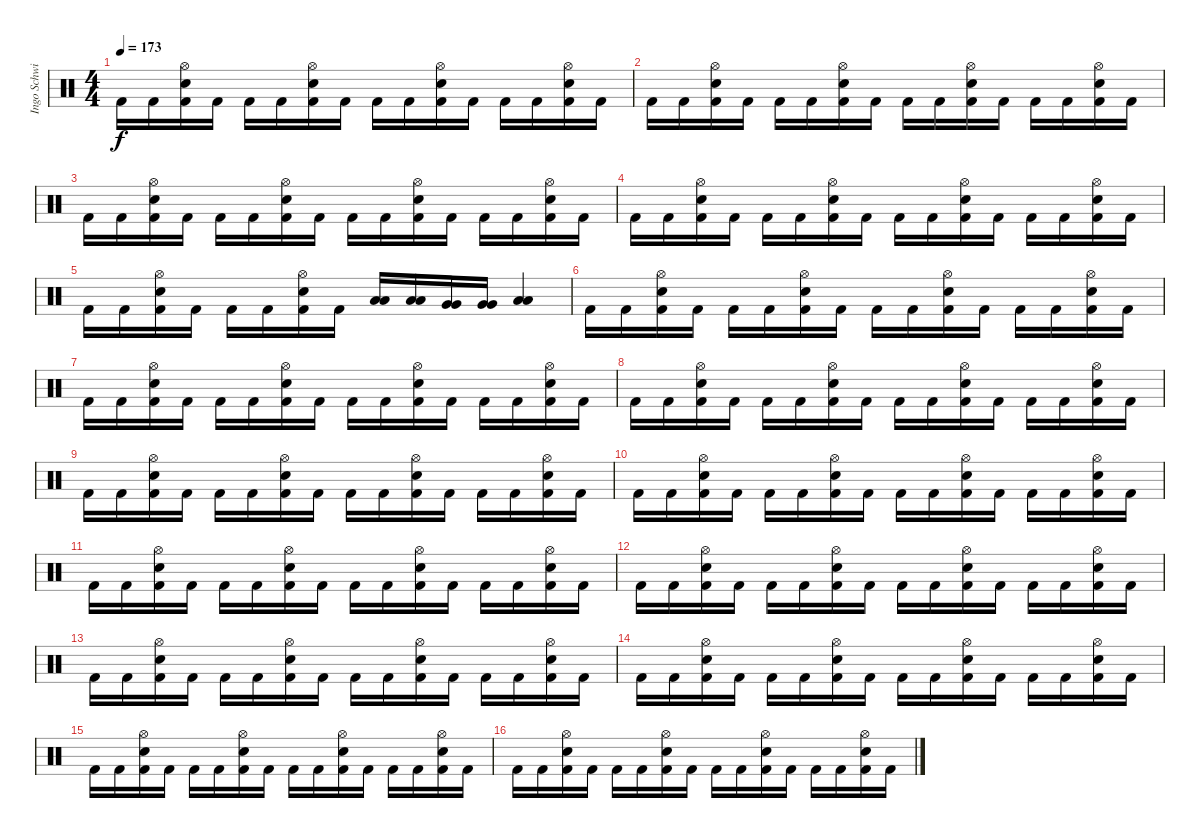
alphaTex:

\track ("Ingo Schwichtenberg" "Ingo Schwi") {instrument percussion}
\staff {score}
\articulation defaults
\ts (4 4)
\tempo 173
\clef neutral
\ks c "Kick (hit) 2".16{dy f} "Kick (hit) 2".16
("Kick (hit) 2" "Snare (hit) 2" "Hi-Hat (open)").16 "Kick (hit) 2".16 "Kick (hit) 2".16 "Kick (hit) 2".16 ("Kick (hit) 2" "Snare (hit) 2" "Hi-Hat (open)").16 "Kick (hit) 2".16 "Kick (hit) 2".16 "Kick (hit) 2".16 ("Kick (hit) 2" "Snare (hit) 2" "Hi-Hat (open)").16 "Kick (hit) 2".16 "Kick (hit) 2".16 "Kick (hit) 2".16 ("Kick (hit) 2" "Snare (hit) 2" "Hi-Hat (open)").16 "Kick (hit) 2".16 |
"Kick (hit) 2".16 "Kick (hit) 2".16 ("Kick (hit) 2" "Snare (hit) 2" "Hi-Hat (open)").16 "Kick (hit) 2".16 "Kick (hit) 2".16 "Kick (hit) 2".16 ("Kick (hit) 2" "Snare (hit) 2" "Hi-Hat (open)").16 "Kick (hit) 2".16 "Kick (hit) 2".16 "Kick (hit) 2".16 ("Kick (hit) 2" "Snare (hit) 2" "Hi-Hat (open)").16 "Kick (hit) 2".16 "Kick (hit) 2".16 "Kick (hit) 2".16 ("Kick (hit) 2" "Snare (hit) 2" "Hi-Hat (open)").16 "Kick (hit) 2".16 |
"Kick (hit) 2".16 "Kick (hit) 2".16 ("Kick (hit) 2" "Snare (hit) 2" "Hi-Hat (open)").16 "Kick (hit) 2".16 "Kick (hit) 2".16 "Kick (hit) 2".16 ("Kick (hit) 2" "Snare (hit) 2" "Hi-Hat (open)").16 "Kick (hit) 2".16 "Kick (hit) 2".16 "Kick (hit) 2".16 ("Kick (hit) 2" "Snare (hit) 2" "Hi-Hat (open)").16 "Kick (hit) 2".16 "Kick (hit) 2".16 "Kick (hit) 2".16 ("Kick (hit) 2" "Snare (hit) 2" "Hi-Hat (open)").16 "Kick (hit) 2".16 |
"Kick (hit) 2".16 "Kick (hit) 2".16 ("Kick (hit) 2" "Snare (hit) 2" "Hi-Hat (open)").16 "Kick (hit) 2".16 "Kick (hit) 2".16 "Kick (hit) 2".16 ("Kick (hit) 2" "Snare (hit) 2" "Hi-Hat (open)").16 "Kick (hit) 2".16 "Kick (hit) 2".16 "Kick (hit) 2".16 ("Kick (hit) 2" "Snare (hit) 2" "Hi-Hat (open)").16 "Kick (hit) 2".16 "Kick (hit) 2".16 "Kick (hit) 2".16 ("Kick (hit) 2" "Snare (hit) 2" "Hi-Hat (open)").16 "Kick (hit) 2".16 |
"Kick (hit) 2".16 "Kick (hit) 2".16 ("Kick (hit) 2" "Snare (hit) 2" "Hi-Hat (open)").16 "Kick (hit) 2".16 "Kick (hit) 2".16 "Kick (hit) 2".16 ("Kick (hit) 2" "Snare (hit) 2" "Hi-Hat (open)").16 "Kick (hit) 2".16 ("Low Tom (hit)" "Low Tom (hit)").16 ("Low Tom (hit)" "Low Tom (hit)").16 ("Very Low Tom (hit)" "Very Low Tom (hit)").16 ("Very Low Tom (hit)" "Very Low Tom (hit)").16 ("Low Floor Tom (hit)" "Low Floor Tom (hit)").4 |
"Kick (hit) 2".16 "Kick (hit) 2".16 ("Kick (hit) 2" "Snare (hit) 2" "Hi-Hat (open)").16 "Kick (hit) 2".16 "Kick (hit) 2".16 "Kick (hit) 2".16 ("Kick (hit) 2" "Snare (hit) 2" "Hi-Hat (open)").16 "Kick (hit) 2".16 "Kick (hit) 2".16 "Kick (hit) 2".16 ("Kick (hit) 2" "Snare (hit) 2" "Hi-Hat (open)").16 "Kick (hit) 2".16 "Kick (hit) 2".16 "Kick (hit) 2".16 ("Kick (hit) 2" "Snare (hit) 2" "Hi-Hat (open)").16 "Kick (hit) 2".16 |
"Kick (hit) 2".16 "Kick (hit) 2".16 ("Kick (hit) 2" "Snare (hit) 2" "Hi-Hat (open)").16 "Kick (hit) 2".16 "Kick (hit) 2".16 "Kick (hit) 2".16 ("Kick (hit) 2" "Snare (hit) 2" "Hi-Hat (open)").16 "Kick (hit) 2".16 "Kick (hit) 2".16 "Kick (hit) 2".16 ("Kick (hit) 2" "Snare (hit) 2" "Hi-Hat (open)").16 "Kick (hit) 2".16 "Kick (hit) 2".16 "Kick (hit) 2".16 ("Kick (hit) 2" "Snare (hit) 2" "Hi-Hat (open)").16 "Kick (hit) 2".16 |
"Kick (hit) 2".16 "Kick (hit) 2".16 ("Kick (hit) 2" "Snare (hit) 2" "Hi-Hat (open)").16 "Kick (hit) 2".16 "Kick (hit) 2".16 "Kick (hit) 2".16 ("Kick (hit) 2" "Snare (hit) 2" "Hi-Hat (open)").16 "Kick (hit) 2".16 "Kick (hit) 2".16 "Kick (hit) 2".16 ("Kick (hit) 2" "Snare (hit) 2" "Hi-Hat (open)").16 "Kick (hit) 2".16 "Kick (hit) 2".16 "Kick (hit) 2".16 ("Kick (hit) 2" "Snare (hit) 2" "Hi-Hat (open)").16 "Kick (hit) 2".16 |
"Kick (hit) 2".16 "Kick (hit) 2".16 ("Kick (hit) 2" "Snare (hit) 2" "Hi-Hat (open)").16 "Kick (hit) 2".16 "Kick (hit) 2".16 "Kick (hit) 2".16 ("Kick (hit) 2" "Snare (hit) 2" "Hi-Hat (open)").16 "Kick (hit) 2".16 "Kick (hit) 2".16 "Kick (hit) 2".16 ("Kick (hit) 2" "Snare (hit) 2" "Hi-Hat (open)").16 "Kick (hit) 2".16 "Kick (hit) 2".16 "Kick (hit) 2".16 ("Kick (hit) 2" "Snare (hit) 2" "Hi-Hat (open)").16 "Kick (hit) 2".16 |
"Kick (hit) 2".16 "Kick (hit) 2".16 ("Kick (hit) 2" "Snare (hit) 2" "Hi-Hat (open)").16 "Kick (hit) 2".16 "Kick (hit) 2".16 "Kick (hit) 2".16 ("Kick (hit) 2" "Snare (hit) 2" "Hi-Hat (open)").16 "Kick (hit) 2".16 "Kick (hit) 2".16 "Kick (hit) 2".16 ("Kick (hit) 2" "Snare (hit) 2" "Hi-Hat (open)").16 "Kick (hit) 2".16 "Kick (hit) 2".16 "Kick (hit) 2".16 ("Kick (hit) 2" "Snare (hit) 2" "Hi-Hat (open)").16 "Kick (hit) 2".16 |
"Kick (hit) 2".16 "Kick (hit) 2".16 ("Kick (hit) 2" "Snare (hit) 2" "Hi-Hat (open)").16 "Kick (hit) 2".16 "Kick (hit) 2".16 "Kick (hit) 2".16 ("Kick (hit) 2" "Snare (hit) 2" "Hi-Hat (open)").16 "Kick (hit) 2".16 "Kick (hit) 2".16 "Kick (hit) 2".16 ("Kick (hit) 2" "Snare (hit) 2" "Hi-Hat (open)").16 "Kick (hit) 2".16 "Kick (hit) 2".16 "Kick (hit) 2".16 ("Kick (hit) 2" "Snare (hit) 2" "Hi-Hat (open)").16 "Kick (hit) 2".16 |
"Kick (hit) 2".16 "Kick (hit) 2".16 ("Kick (hit) 2" "Snare (hit) 2" "Hi-Hat (open)").16 "Kick (hit) 2".16 "Kick (hit) 2".16 "Kick (hit) 2".16 ("Kick (hit) 2" "Snare (hit) 2" "Hi-Hat (open)").16 "Kick (hit) 2".16 "Kick (hit) 2".16 "Kick (hit) 2".16 ("Kick (hit) 2" "Snare (hit) 2" "Hi-Hat (open)").16 "Kick (hit) 2".16 "Kick (hit) 2".16 "Kick (hit) 2".16 ("Kick (hit) 2" "Snare (hit) 2" "Hi-Hat (open)").16 "Kick (hit) 2".16 |
"Kick (hit) 2".16 "Kick (hit) 2".16 ("Kick (hit) 2" "Snare (hit) 2" "Hi-Hat (open)").16 "Kick (hit) 2".16 "Kick (hit) 2".16 "Kick (hit) 2".16 ("Kick (hit) 2" "Snare (hit) 2" "Hi-Hat (open)").16 "Kick (hit) 2".16 "Kick (hit) 2".16 "Kick (hit) 2".16 ("Kick (hit) 2" "Snare (hit) 2" "Hi-Hat (open)").16 "Kick (hit) 2".16 "Kick (hit) 2".16 "Kick (hit) 2".16 ("Kick (hit) 2" "Snare (hit) 2" "Hi-Hat (open)").16 "Kick (hit) 2".16 |
"Kick (hit) 2".16 "Kick (hit) 2".16 ("Kick (hit) 2" "Snare (hit) 2" "Hi-Hat (open)").16 "Kick (hit) 2".16 "Kick (hit) 2".16 "Kick (hit) 2".16 ("Kick (hit) 2" "Snare (hit) 2" "Hi-Hat (open)").16 "Kick (hit) 2".16 "Kick (hit) 2".16 "Kick (hit) 2".16 ("Kick (hit) 2" "Snare (hit) 2" "Hi-Hat (open)").16 "Kick (hit) 2".16 "Kick (hit) 2".16 "Kick (hit) 2".16 ("Kick (hit) 2" "Snare (hit) 2" "Hi-Hat (open)").16 "Kick (hit) 2".16 |
"Kick (hit) 2".16 "Kick (hit) 2".16 ("Kick (hit) 2" "Snare (hit) 2" "Hi-Hat (open)").16 "Kick (hit) 2".16 "Kick (hit) 2".16 "Kick (hit) 2".16 ("Kick (hit) 2" "Snare (hit) 2" "Hi-Hat (open)").16 "Kick (hit) 2".16 "Kick (hit) 2".16 "Kick (hit) 2".16 ("Kick (hit) 2" "Snare (hit) 2" "Hi-Hat (open)").16 "Kick (hit) 2".16 "Kick (hit) 2".16 "Kick (hit) 2".16 ("Kick (hit) 2" "Snare (hit) 2" "Hi-Hat (open)").16 "Kick (hit) 2".16 |
"Kick (hit) 2".16 "Kick (hit) 2".16 ("Kick (hit) 2" "Snare (hit) 2" "Hi-Hat (open)").16 "Kick (hit) 2".16 "Kick (hit) 2".16 "Kick (hit) 2".16 ("Kick (hit) 2" "Snare (hit) 2" "Hi-Hat (open)").16 "Kick (hit) 2".16 "Kick (hit) 2".16 "Kick (hit) 2".16 ("Kick (hit) 2" "Snare (hit) 2" "Hi-Hat (open)").16 "Kick (hit) 2".16 "Kick (hit) 2".16 "Kick (hit) 2".16 ("Kick (hit) 2" "Snare (hit) 2" "Hi-Hat (open)").16 "Kick (hit) 2".16
